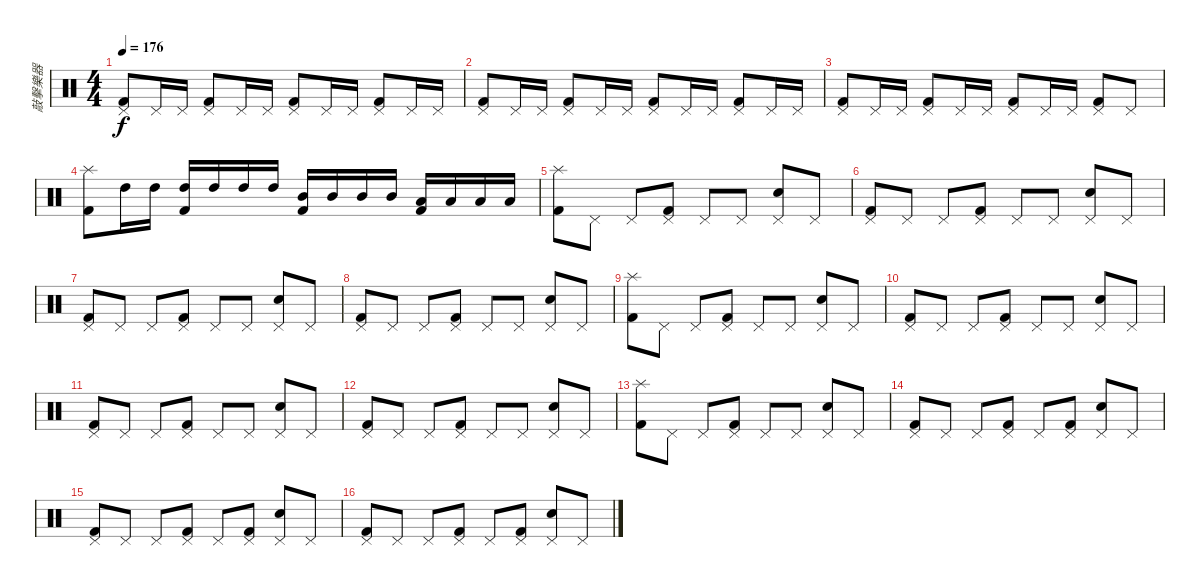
\track ("敲擊樂器" "敲擊樂器") {instrument percussion}
\staff {score}
\articulation defaults
\ts (4 4)
\tempo 176
\clef neutral
\ks c
("Pedal Hi-Hat (hit)" "Kick (hit) 2").8{dy f} "Pedal Hi-Hat (hit)".16 "Pedal Hi-Hat (hit)".16 ("Pedal Hi-Hat (hit)" "Kick (hit) 2").8 "Pedal Hi-Hat (hit)".16 "Pedal Hi-Hat (hit)".16 ("Pedal Hi-Hat (hit)" "Kick (hit) 2").8 "Pedal Hi-Hat (hit)".16 "Pedal Hi-Hat (hit)".16 ("Pedal Hi-Hat (hit)" "Kick (hit) 2").8 "Pedal Hi-Hat (hit)".16 "Pedal Hi-Hat (hit)".16 |
("Pedal Hi-Hat (hit)" "Kick (hit) 2").8 "Pedal Hi-Hat (hit)".16 "Pedal Hi-Hat (hit)".16 ("Pedal Hi-Hat (hit)" "Kick (hit) 2").8 "Pedal Hi-Hat (hit)".16 "Pedal Hi-Hat (hit)".16 ("Pedal Hi-Hat (hit)" "Kick (hit) 2").8 "Pedal Hi-Hat (hit)".16 "Pedal Hi-Hat (hit)".16 ("Pedal Hi-Hat (hit)" "Kick (hit) 2").8 "Pedal Hi-Hat (hit)".16 "Pedal Hi-Hat (hit)".16 |
("Pedal Hi-Hat (hit)" "Kick (hit) 2").8 "Pedal Hi-Hat (hit)".16 "Pedal Hi-Hat (hit)".16 ("Pedal Hi-Hat (hit)" "Kick (hit) 2").8 "Pedal Hi-Hat (hit)".16 "Pedal Hi-Hat (hit)".16 ("Pedal Hi-Hat (hit)" "Kick (hit) 2").8 "Pedal Hi-Hat (hit)".16 "Pedal Hi-Hat (hit)".16 ("Pedal Hi-Hat (hit)" "Kick (hit) 2").8 "Pedal Hi-Hat (hit)".8 |
("Kick (hit) 2" "Splash (hit)").8 "High Tom (hit)".16 "High Tom (hit)".16 ("High Tom (hit)" "Kick (hit) 2").16 "High Tom (hit)".16 "High Tom (hit)".16 "High Tom (hit)".16 ("Mid Tom (hit)" "Kick (hit) 2").16 "Mid Tom (hit)".16 "Mid Tom (hit)".16 "Mid Tom (hit)".16 ("Low Tom (hit)" "Kick (hit) 2").16 "Low Tom (hit)".16 "Low Tom (hit)".16 "Low Tom (hit)".16 |
("Splash (hit)" "Kick (hit) 2").8 "Pedal Hi-Hat (hit)".8 "Pedal Hi-Hat (hit)".8 ("Pedal Hi-Hat (hit)" "Kick (hit) 2").8 "Pedal Hi-Hat (hit)".8 "Pedal Hi-Hat (hit)".8 ("Pedal Hi-Hat (hit)" "Snare (hit) 2").8 "Pedal Hi-Hat (hit)".8 |
("Pedal Hi-Hat (hit)" "Kick (hit) 2").8 "Pedal Hi-Hat (hit)".8 "Pedal Hi-Hat (hit)".8 ("Pedal Hi-Hat (hit)" "Kick (hit) 2").8 "Pedal Hi-Hat (hit)".8 "Pedal Hi-Hat (hit)".8 ("Pedal Hi-Hat (hit)" "Snare (hit) 2").8 "Pedal Hi-Hat (hit)".8 |
("Pedal Hi-Hat (hit)" "Kick (hit) 2").8 "Pedal Hi-Hat (hit)".8 "Pedal Hi-Hat (hit)".8 ("Pedal Hi-Hat (hit)" "Kick (hit) 2").8 "Pedal Hi-Hat (hit)".8 "Pedal Hi-Hat (hit)".8 ("Pedal Hi-Hat (hit)" "Snare (hit) 2").8 "Pedal Hi-Hat (hit)".8 |
("Pedal Hi-Hat (hit)" "Kick (hit) 2").8 "Pedal Hi-Hat (hit)".8 "Pedal Hi-Hat (hit)".8 ("Pedal Hi-Hat (hit)" "Kick (hit) 2").8 "Pedal Hi-Hat (hit)".8 "Pedal Hi-Hat (hit)".8 ("Pedal Hi-Hat (hit)" "Snare (hit) 2").8 "Pedal Hi-Hat (hit)".8 |
("Splash (hit)" "Kick (hit) 2").8 "Pedal Hi-Hat (hit)".8 "Pedal Hi-Hat (hit)".8 ("Pedal Hi-Hat (hit)" "Kick (hit) 2").8 "Pedal Hi-Hat (hit)".8 "Pedal Hi-Hat (hit)".8 ("Pedal Hi-Hat (hit)" "Snare (hit) 2").8 "Pedal Hi-Hat (hit)".8 |
("Pedal Hi-Hat (hit)" "Kick (hit) 2").8 "Pedal Hi-Hat (hit)".8 "Pedal Hi-Hat (hit)".8 ("Pedal Hi-Hat (hit)" "Kick (hit) 2").8 "Pedal Hi-Hat (hit)".8 "Pedal Hi-Hat (hit)".8 ("Pedal Hi-Hat (hit)" "Snare (hit) 2").8 "Pedal Hi-Hat (hit)".8 |
("Pedal Hi-Hat (hit)" "Kick (hit) 2").8 "Pedal Hi-Hat (hit)".8 "Pedal Hi-Hat (hit)".8 ("Pedal Hi-Hat (hit)" "Kick (hit) 2").8 "Pedal Hi-Hat (hit)".8 "Pedal Hi-Hat (hit)".8 ("Pedal Hi-Hat (hit)" "Snare (hit) 2").8 "Pedal Hi-Hat (hit)".8 |
("Pedal Hi-Hat (hit)" "Kick (hit) 2").8 "Pedal Hi-Hat (hit)".8 "Pedal Hi-Hat (hit)".8 ("Pedal Hi-Hat (hit)" "Kick (hit) 2").8 "Pedal Hi-Hat (hit)".8 "Pedal Hi-Hat (hit)".8 ("Pedal Hi-Hat (hit)" "Snare (hit) 2").8 "Pedal Hi-Hat (hit)".8 |
("Splash (hit)" "Kick (hit) 2").8 "Pedal Hi-Hat (hit)".8 "Pedal Hi-Hat (hit)".8 ("Pedal Hi-Hat (hit)" "Kick (hit) 2").8 "Pedal Hi-Hat (hit)".8 "Pedal Hi-Hat (hit)".8 ("Snare (hit) 2" "Pedal Hi-Hat (hit)").8 "Pedal Hi-Hat (hit)".8 |
("Pedal Hi-Hat (hit)" "Kick (hit) 2").8 "Pedal Hi-Hat (hit)".8 "Pedal Hi-Hat (hit)".8 ("Kick (hit) 2" "Pedal Hi-Hat (hit)").8 "Pedal Hi-Hat (hit)".8 ("Pedal Hi-Hat (hit)" "Kick (hit) 2").8 ("Snare (hit) 2" "Pedal Hi-Hat (hit)").8 "Pedal Hi-Hat (hit)".8 |
("Pedal Hi-Hat (hit)" "Kick (hit) 2").8 "Pedal Hi-Hat (hit)".8 "Pedal Hi-Hat (hit)".8 ("Kick (hit) 2" "Pedal Hi-Hat (hit)").8 "Pedal Hi-Hat (hit)".8 ("Pedal Hi-Hat (hit)" "Kick (hit) 2").8 ("Snare (hit) 2" "Pedal Hi-Hat (hit)").8 "Pedal Hi-Hat (hit)".8 |
("Pedal Hi-Hat (hit)" "Kick (hit) 2").8 "Pedal Hi-Hat (hit)".8 "Pedal Hi-Hat (hit)".8 ("Kick (hit) 2" "Pedal Hi-Hat (hit)").8 "Pedal Hi-Hat (hit)".8 ("Pedal Hi-Hat (hit)" "Kick (hit) 2").8 ("Snare (hit) 2" "Pedal Hi-Hat (hit)").8 "Pedal Hi-Hat (hit)".8
